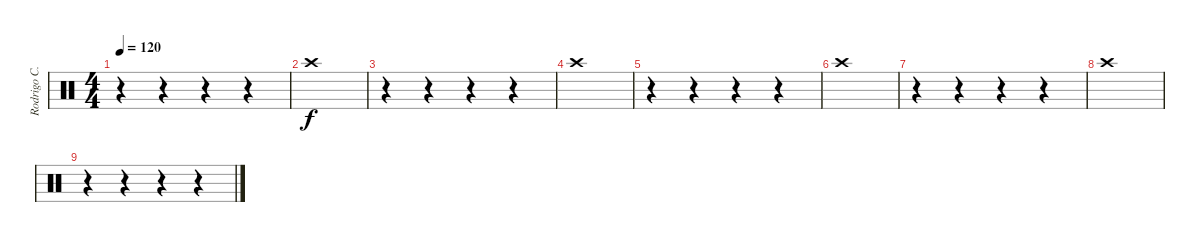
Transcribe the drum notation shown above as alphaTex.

\track ("Rodrigo C. (Bateria)" "Rodrigo C.") {instrument percussion}
\staff {score}
\articulation defaults
\ts (4 4)
\tempo 120
\clef neutral
\ks c
r.4{dy f} r.4 r.4 r.4 |
"Crash high (hit)".1 |
r.4 r.4 r.4 r.4 |
"Crash high (hit)".1 |
r.4 r.4 r.4 r.4 |
"Crash high (hit)".1 |
r.4 r.4 r.4 r.4 |
"Crash high (hit)".1 |
r.4 r.4 r.4 r.4
